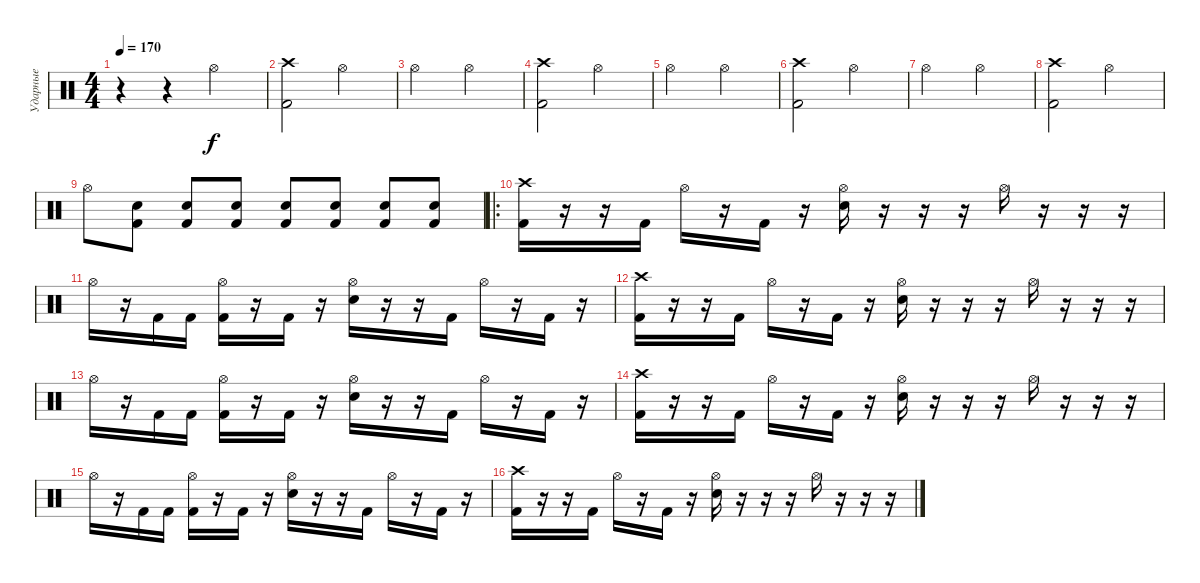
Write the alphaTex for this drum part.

\track ("Ударные" "Ударные") {instrument percussion}
\staff {score}
\articulation defaults
\ts (4 4)
\tempo 170
\clef neutral
\ks c
r.4{dy f} r.4 "Hi-Hat (open)".2 |
("Crash high (hit)" "Kick (hit) 2").2 "Hi-Hat (open)".2 |
"Hi-Hat (open)".2 "Hi-Hat (open)".2 |
("Crash high (hit)" "Kick (hit) 2").2 "Hi-Hat (open)".2 |
"Hi-Hat (open)".2 "Hi-Hat (open)".2 |
("Crash high (hit)" "Kick (hit) 2").2 "Hi-Hat (open)".2 |
"Hi-Hat (open)".2 "Hi-Hat (open)".2 |
("Crash high (hit)" "Kick (hit) 2").2 "Hi-Hat (open)".2 |
"Hi-Hat (open)".8 ("Electric Snare (hit)" "Kick (hit) 2").8 ("Electric Snare (hit)" "Kick (hit) 2").8 ("Electric Snare (hit)" "Kick (hit) 2").8 ("Electric Snare (hit)" "Kick (hit) 2").8 ("Electric Snare (hit)" "Kick (hit) 2").8 ("Electric Snare (hit)" "Kick (hit) 2").8 ("Electric Snare (hit)" "Kick (hit) 2").8 |
\ro
("Crash high (hit)" "Kick (hit) 2").16 r.16 r.16 "Kick (hit) 2".16 "Hi-Hat (open)".16 r.16 "Kick (hit) 2".16 r.16 ("Hi-Hat (open)" "Electric Snare (hit)").16 r.16 r.16 r.16 "Hi-Hat (open)".16 r.16 r.16 r.16 |
"Hi-Hat (open)".16 r.16 "Kick (hit) 2".16 "Kick (hit) 2".16 ("Hi-Hat (open)" "Kick (hit) 2").16 r.16 "Kick (hit) 2".16 r.16 ("Hi-Hat (open)" "Electric Snare (hit)").16 r.16 r.16 "Kick (hit) 2".16 "Hi-Hat (open)".16 r.16 "Kick (hit) 2".16 r.16 |
("Crash high (hit)" "Kick (hit) 2").16 r.16 r.16 "Kick (hit) 2".16 "Hi-Hat (open)".16 r.16 "Kick (hit) 2".16 r.16 ("Hi-Hat (open)" "Electric Snare (hit)").16 r.16 r.16 r.16 "Hi-Hat (open)".16 r.16 r.16 r.16 |
"Hi-Hat (open)".16 r.16 "Kick (hit) 2".16 "Kick (hit) 2".16 ("Hi-Hat (open)" "Kick (hit) 2").16 r.16 "Kick (hit) 2".16 r.16 ("Hi-Hat (open)" "Electric Snare (hit)").16 r.16 r.16 "Kick (hit) 2".16 "Hi-Hat (open)".16 r.16 "Kick (hit) 2".16 r.16 |
("Crash high (hit)" "Kick (hit) 2").16 r.16 r.16 "Kick (hit) 2".16 "Hi-Hat (open)".16 r.16 "Kick (hit) 2".16 r.16 ("Hi-Hat (open)" "Electric Snare (hit)").16 r.16 r.16 r.16 "Hi-Hat (open)".16 r.16 r.16 r.16 |
"Hi-Hat (open)".16 r.16 "Kick (hit) 2".16 "Kick (hit) 2".16 ("Hi-Hat (open)" "Kick (hit) 2").16 r.16 "Kick (hit) 2".16 r.16 ("Hi-Hat (open)" "Electric Snare (hit)").16 r.16 r.16 "Kick (hit) 2".16 "Hi-Hat (open)".16 r.16 "Kick (hit) 2".16 r.16 |
("Crash high (hit)" "Kick (hit) 2").16 r.16 r.16 "Kick (hit) 2".16 "Hi-Hat (open)".16 r.16 "Kick (hit) 2".16 r.16 ("Hi-Hat (open)" "Electric Snare (hit)").16 r.16 r.16 r.16 "Hi-Hat (open)".16 r.16 r.16 r.16
